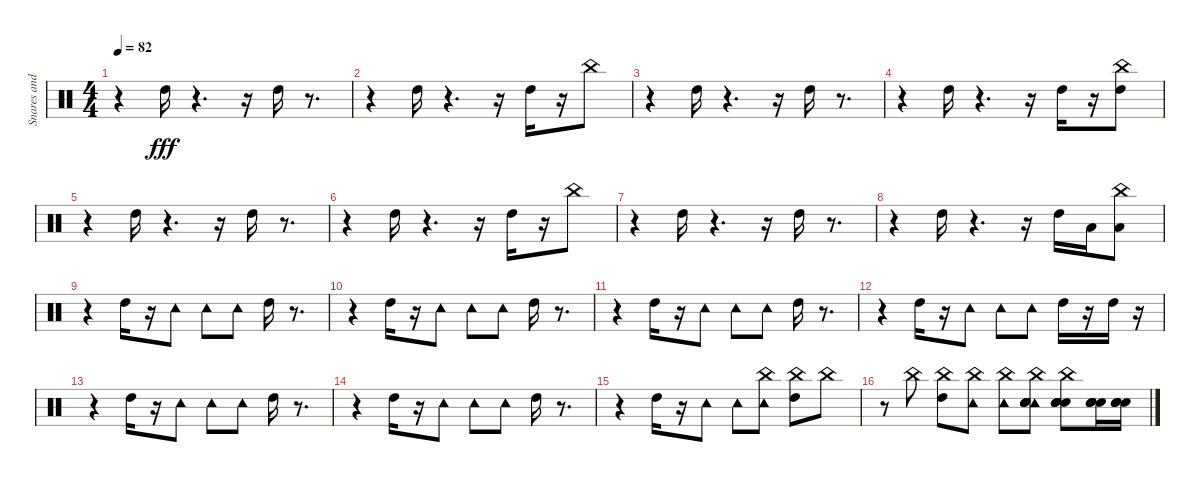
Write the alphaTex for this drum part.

\track ("Snares and Cymbals" "Snares and") {instrument percussion}
\staff {score}
\articulation defaults
\ts (4 4)
\tempo 82
\clef neutral
\ks c
r.4{dy fff} "High Tom (hit)".16 r.4{d} r.16 "High Tom (hit)".16 r.8{d} |
r.4 "High Tom (hit)".16 r.4{d} r.16 "High Tom (hit)".16 r.16 "China (hit)".8 |
r.4 "High Tom (hit)".16 r.4{d} r.16 "High Tom (hit)".16 r.8{d} |
r.4 "High Tom (hit)".16 r.4{d} r.16 "High Tom (hit)".16 r.16 ("High Tom (hit)" "China (hit)").8 |
r.4 "High Tom (hit)".16 r.4{d} r.16 "High Tom (hit)".16 r.8{d} |
r.4 "High Tom (hit)".16 r.4{d} r.16 "High Tom (hit)".16 r.16 "China (hit)".8 |
r.4 "High Tom (hit)".16 r.4{d} r.16 "High Tom (hit)".16 r.8{d} |
r.4 "High Tom (hit)".16 r.4{d} r.16 "High Tom (hit)".16 "Low Tom (hit)".16 ("Low Tom (hit)" "China (hit)").8 |
r.4 "High Tom (hit)".16 r.16 "Tambourine (hit)".8 "Tambourine (hit)".8 "Tambourine (hit)".8 "High Tom (hit)".16 r.8{d} |
r.4 "High Tom (hit)".16 r.16 "Tambourine (hit)".8 "Tambourine (hit)".8 "Tambourine (hit)".8 "High Tom (hit)".16 r.8{d} |
r.4 "High Tom (hit)".16 r.16 "Tambourine (hit)".8 "Tambourine (hit)".8 "Tambourine (hit)".8 "High Tom (hit)".16 r.8{d} |
r.4 "High Tom (hit)".16 r.16 "Tambourine (hit)".8 "Tambourine (hit)".8 "Tambourine (hit)".8 "High Tom (hit)".16 r.16 "High Tom (hit)".16 r.16 |
r.4 "High Tom (hit)".16 r.16 "Tambourine (hit)".8 "Tambourine (hit)".8 "Tambourine (hit)".8 "High Tom (hit)".16 r.8{d} |
r.4 "High Tom (hit)".16 r.16 "Tambourine (hit)".8 "Tambourine (hit)".8 "Tambourine (hit)".8 "High Tom (hit)".16 r.8{d} |
r.4 "High Tom (hit)".16 r.16 "Tambourine (hit)".8 "Tambourine (hit)".8 ("Tambourine (hit)" "China (hit)").8 ("High Tom (hit)" "China (hit)").8 "China (hit)".8 |
r.8 "China (hit)".8 ("High Tom (hit)" "China (hit)").8 ("Tambourine (hit)" "China (hit)").8 ("Tambourine (hit)" "China (hit)").8 ("Tambourine (hit)" "Snare (hit) 2" "Electric Snare (hit)" "Electric Snare (hit)" "Snare (hit) 2" "China (hit)").8 ("Snare (hit) 2" "Electric Snare (hit)" "Electric Snare (hit)" "Snare (hit) 2" "China (hit)").8 ("Snare (hit) 2" "Electric Snare (hit)" "Electric Snare (hit)" "Snare (hit) 2").16 ("Snare (hit) 2" "Electric Snare (hit)" "Electric Snare (hit)" "Snare (hit) 2").16
